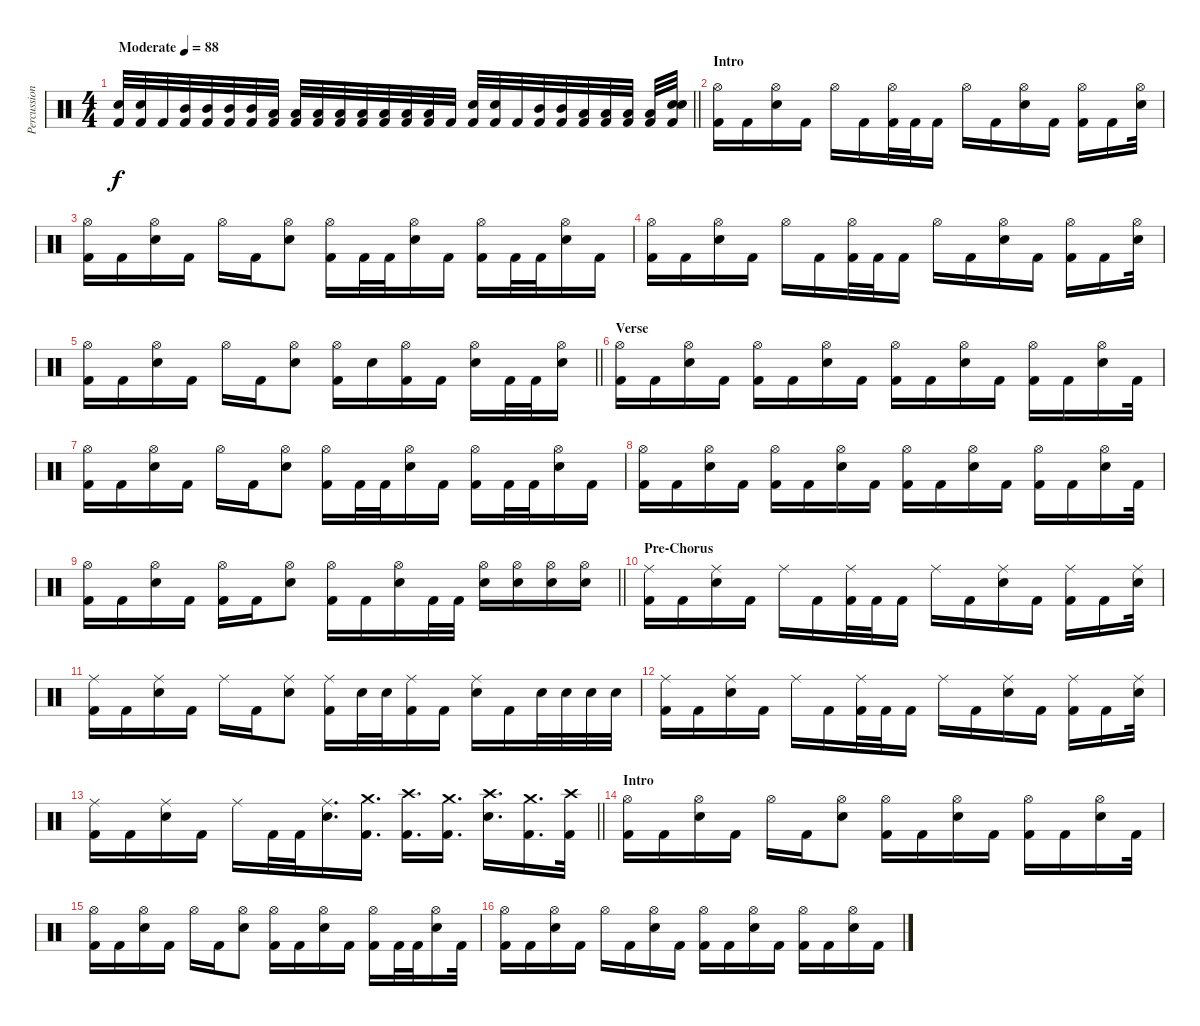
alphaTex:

\track ("Percussion" "Percussion") {instrument percussion}
\staff {score}
\articulation defaults
\ts (4 4)
\tempo (88 "Moderate")
\clef neutral
\barLineRight lightlight
\ks c
("Snare (hit) 2" "Kick (hit) 2").32{dy f} ("Snare (hit) 2" "Kick (hit) 2").32 "Kick (hit) 2".32 ("Mid Tom (hit)" "Kick (hit) 2").32 ("Mid Tom (hit)" "Kick (hit) 2").32 ("Mid Tom (hit)" "Kick (hit) 2").32 ("Mid Tom (hit)" "Kick (hit) 2").32 ("Low Tom (hit)" "Kick (hit) 2").32 ("Low Tom (hit)" "Kick (hit) 2").32 ("Low Tom (hit)" "Kick (hit) 2").32 ("Low Tom (hit)" "Kick (hit) 2").32 ("Low Floor Tom (hit)" "Kick (hit) 2").32 ("Low Floor Tom (hit)" "Kick (hit) 2").32 ("Low Floor Tom (hit)" "Kick (hit) 2").32 ("Low Floor Tom (hit)" "Kick (hit) 2").32 "Kick (hit) 2".32 ("Snare (hit) 2" "Kick (hit) 2").32 ("Snare (hit) 2" "Kick (hit) 2").32 "Kick (hit) 2".32 ("Mid Tom (hit)" "Kick (hit) 2").32 ("Mid Tom (hit)" "Kick (hit) 2").32 ("Low Tom (hit)" "Kick (hit) 2").32 ("Low Tom (hit)" "Kick (hit) 2").32 ("Low Floor Tom (hit)" "Kick (hit) 2").32 ("Low Floor Tom (hit)" "Kick (hit) 2").32 ("Snare (hit) 2" "Snare (hit) 2" "Kick (hit) 2").32 |
\section ("" "Intro")
("Hi-Hat (open)" "Kick (hit) 2").16 "Kick (hit) 2".16 ("Hi-Hat (open)" "Snare (hit) 2").16 "Kick (hit) 2".16 "Hi-Hat (open)".16 "Kick (hit) 2".16 ("Hi-Hat (open)" "Kick (hit) 2").32 "Kick (hit) 2".32 "Kick (hit) 2".16 "Hi-Hat (open)".16 "Kick (hit) 2".16 ("Hi-Hat (open)" "Snare (hit) 2").16 "Kick (hit) 2".16 ("Hi-Hat (open)" "Kick (hit) 2").16 "Kick (hit) 2".16 ("Hi-Hat (open)" "Snare (hit) 2").32 |
("Hi-Hat (open)" "Kick (hit) 2").16 "Kick (hit) 2".16 ("Hi-Hat (open)" "Snare (hit) 2").16 "Kick (hit) 2".16 "Hi-Hat (open)".16 "Kick (hit) 2".16 ("Hi-Hat (open)" "Snare (hit) 2").8 ("Hi-Hat (open)" "Kick (hit) 2").16 "Kick (hit) 2".32 "Kick (hit) 2".32 ("Hi-Hat (open)" "Snare (hit) 2").16 "Kick (hit) 2".16 ("Hi-Hat (open)" "Kick (hit) 2").16 "Kick (hit) 2".32 "Kick (hit) 2".32 ("Hi-Hat (open)" "Snare (hit) 2").16 "Kick (hit) 2".16 |
("Hi-Hat (open)" "Kick (hit) 2").16 "Kick (hit) 2".16 ("Hi-Hat (open)" "Snare (hit) 2").16 "Kick (hit) 2".16 "Hi-Hat (open)".16 "Kick (hit) 2".16 ("Hi-Hat (open)" "Kick (hit) 2").32 "Kick (hit) 2".32 "Kick (hit) 2".16 "Hi-Hat (open)".16 "Kick (hit) 2".16 ("Hi-Hat (open)" "Snare (hit) 2").16 "Kick (hit) 2".16 ("Hi-Hat (open)" "Kick (hit) 2").16 "Kick (hit) 2".16 ("Hi-Hat (open)" "Snare (hit) 2").32 |
\barLineRight lightlight
("Hi-Hat (open)" "Kick (hit) 2").16 "Kick (hit) 2".16 ("Hi-Hat (open)" "Snare (hit) 2").16 "Kick (hit) 2".16 "Hi-Hat (open)".16 "Kick (hit) 2".16 ("Hi-Hat (open)" "Snare (hit) 2").8 ("Hi-Hat (open)" "Kick (hit) 2").16 "Snare (hit) 2".16 ("Hi-Hat (open)" "Kick (hit) 2").16 "Kick (hit) 2".16 ("Hi-Hat (open)" "Snare (hit) 2").16 "Kick (hit) 2".32 "Kick (hit) 2".32 ("Hi-Hat (open)" "Snare (hit) 2").16 |
\section ("" "Verse")
("Hi-Hat (open)" "Kick (hit) 2").16 "Kick (hit) 2".16 ("Hi-Hat (open)" "Snare (hit) 2").16 "Kick (hit) 2".16 ("Hi-Hat (open)" "Kick (hit) 2").16 "Kick (hit) 2".16 ("Hi-Hat (open)" "Snare (hit) 2").16 "Kick (hit) 2".16 ("Hi-Hat (open)" "Kick (hit) 2").16 "Kick (hit) 2".16 ("Hi-Hat (open)" "Snare (hit) 2").16 "Kick (hit) 2".16 ("Hi-Hat (open)" "Kick (hit) 2").16 "Kick (hit) 2".16 ("Hi-Hat (open)" "Snare (hit) 2").16 "Kick (hit) 2".32 |
("Hi-Hat (open)" "Kick (hit) 2").16 "Kick (hit) 2".16 ("Hi-Hat (open)" "Snare (hit) 2").16 "Kick (hit) 2".16 "Hi-Hat (open)".16 "Kick (hit) 2".16 ("Hi-Hat (open)" "Snare (hit) 2").8 ("Hi-Hat (open)" "Kick (hit) 2").16 "Kick (hit) 2".32 "Kick (hit) 2".32 ("Hi-Hat (open)" "Snare (hit) 2").16 "Kick (hit) 2".16 ("Hi-Hat (open)" "Kick (hit) 2").16 "Kick (hit) 2".32 "Kick (hit) 2".32 ("Hi-Hat (open)" "Snare (hit) 2").16 "Kick (hit) 2".16 |
("Hi-Hat (open)" "Kick (hit) 2").16 "Kick (hit) 2".16 ("Hi-Hat (open)" "Snare (hit) 2").16 "Kick (hit) 2".16 ("Hi-Hat (open)" "Kick (hit) 2").16 "Kick (hit) 2".16 ("Hi-Hat (open)" "Snare (hit) 2").16 "Kick (hit) 2".16 ("Hi-Hat (open)" "Kick (hit) 2").16 "Kick (hit) 2".16 ("Hi-Hat (open)" "Snare (hit) 2").16 "Kick (hit) 2".16 ("Hi-Hat (open)" "Kick (hit) 2").16 "Kick (hit) 2".16 ("Hi-Hat (open)" "Snare (hit) 2").16 "Kick (hit) 2".32 |
\barLineRight lightlight
("Hi-Hat (open)" "Kick (hit) 2").16 "Kick (hit) 2".16 ("Hi-Hat (open)" "Snare (hit) 2").16 "Kick (hit) 2".16 ("Hi-Hat (open)" "Kick (hit) 2").16 "Kick (hit) 2".16 ("Hi-Hat (open)" "Snare (hit) 2").8 ("Hi-Hat (open)" "Kick (hit) 2").16 "Kick (hit) 2".16 ("Hi-Hat (open)" "Snare (hit) 2").16 "Kick (hit) 2".32 "Kick (hit) 2".32 ("Hi-Hat (open)" "Snare (hit) 2").16 ("Hi-Hat (open)" "Snare (hit) 2").16 ("Hi-Hat (open)" "Snare (hit) 2").16 ("Hi-Hat (open)" "Snare (hit) 2").16 |
\section ("" "Pre-Chorus")
("Ride (middle)" "Kick (hit) 2").16 "Kick (hit) 2".16 ("Ride (middle)" "Snare (hit) 2").16 "Kick (hit) 2".16 "Ride (middle)".16 "Kick (hit) 2".16 ("Ride (middle)" "Kick (hit) 2").32 "Kick (hit) 2".32 "Kick (hit) 2".16 "Ride (middle)".16 "Kick (hit) 2".16 ("Ride (middle)" "Snare (hit) 2").16 "Kick (hit) 2".16 ("Ride (middle)" "Kick (hit) 2").16 "Kick (hit) 2".16 ("Ride (middle)" "Snare (hit) 2").32 |
("Ride (middle)" "Kick (hit) 2").16 "Kick (hit) 2".16 ("Ride (middle)" "Snare (hit) 2").16 "Kick (hit) 2".16 "Ride (middle)".16 "Kick (hit) 2".16 ("Ride (middle)" "Snare (hit) 2").8 ("Ride (middle)" "Kick (hit) 2").16 "Snare (hit) 2".32 "Snare (hit) 2".32 ("Ride (middle)" "Kick (hit) 2").16 "Kick (hit) 2".16 ("Ride (middle)" "Snare (hit) 2").16 "Kick (hit) 2".16 "Snare (hit) 2".32 "Snare (hit) 2".32 "Snare (hit) 2".32 "Snare (hit) 2".32 |
("Ride (middle)" "Kick (hit) 2").16 "Kick (hit) 2".16 ("Ride (middle)" "Snare (hit) 2").16 "Kick (hit) 2".16 "Ride (middle)".16 "Kick (hit) 2".16 ("Ride (middle)" "Kick (hit) 2").32 "Kick (hit) 2".32 "Kick (hit) 2".16 "Ride (middle)".16 "Kick (hit) 2".16 ("Ride (middle)" "Snare (hit) 2").16 "Kick (hit) 2".16 ("Ride (middle)" "Kick (hit) 2").16 "Kick (hit) 2".16 ("Ride (middle)" "Snare (hit) 2").32 |
\barLineRight lightlight
("Ride (middle)" "Kick (hit) 2").16 "Kick (hit) 2".16 ("Ride (middle)" "Snare (hit) 2").16 "Kick (hit) 2".16 "Ride (middle)".16 "Kick (hit) 2".32 "Kick (hit) 2".32 ("Ride (middle)" "Snare (hit) 2").16{d} ("Crash medium (hit)" "Kick (hit) 2").16{d} ("Crash high (hit)" "Kick (hit) 2").16{d} ("Crash medium (hit)" "Kick (hit) 2").16{d} ("Crash high (hit)" "Snare (hit) 2").16{d} ("Crash medium (hit)" "Kick (hit) 2").16{d} ("Crash high (hit)" "Kick (hit) 2").32 |
\section ("" "Intro")
("Hi-Hat (open)" "Kick (hit) 2").16 "Kick (hit) 2".16 ("Hi-Hat (open)" "Snare (hit) 2").16 "Kick (hit) 2".16 "Hi-Hat (open)".16 "Kick (hit) 2".16 ("Hi-Hat (open)" "Snare (hit) 2").8 ("Hi-Hat (open)" "Kick (hit) 2").16 "Kick (hit) 2".16 ("Hi-Hat (open)" "Snare (hit) 2").16 "Kick (hit) 2".16 ("Hi-Hat (open)" "Kick (hit) 2").16 "Kick (hit) 2".16 ("Hi-Hat (open)" "Snare (hit) 2").16 "Kick (hit) 2".32 |
("Hi-Hat (open)" "Kick (hit) 2").16 "Kick (hit) 2".16 ("Hi-Hat (open)" "Snare (hit) 2").16 "Kick (hit) 2".16 "Hi-Hat (open)".16 "Kick (hit) 2".16 ("Hi-Hat (open)" "Snare (hit) 2").8 ("Hi-Hat (open)" "Kick (hit) 2").16 "Kick (hit) 2".16 ("Hi-Hat (open)" "Snare (hit) 2").16 "Kick (hit) 2".16 ("Hi-Hat (open)" "Kick (hit) 2").16 "Kick (hit) 2".32 "Kick (hit) 2".32 ("Hi-Hat (open)" "Snare (hit) 2").16 "Kick (hit) 2".32 |
("Hi-Hat (open)" "Kick (hit) 2").16 "Kick (hit) 2".16 ("Hi-Hat (open)" "Snare (hit) 2").16 "Kick (hit) 2".16 "Hi-Hat (open)".16 "Kick (hit) 2".16 ("Hi-Hat (open)" "Snare (hit) 2").16 "Kick (hit) 2".16 ("Hi-Hat (open)" "Kick (hit) 2").16 "Kick (hit) 2".16 ("Hi-Hat (open)" "Snare (hit) 2").16 "Kick (hit) 2".16 ("Hi-Hat (open)" "Kick (hit) 2").16 "Kick (hit) 2".16 ("Hi-Hat (open)" "Snare (hit) 2").16 "Kick (hit) 2".16
